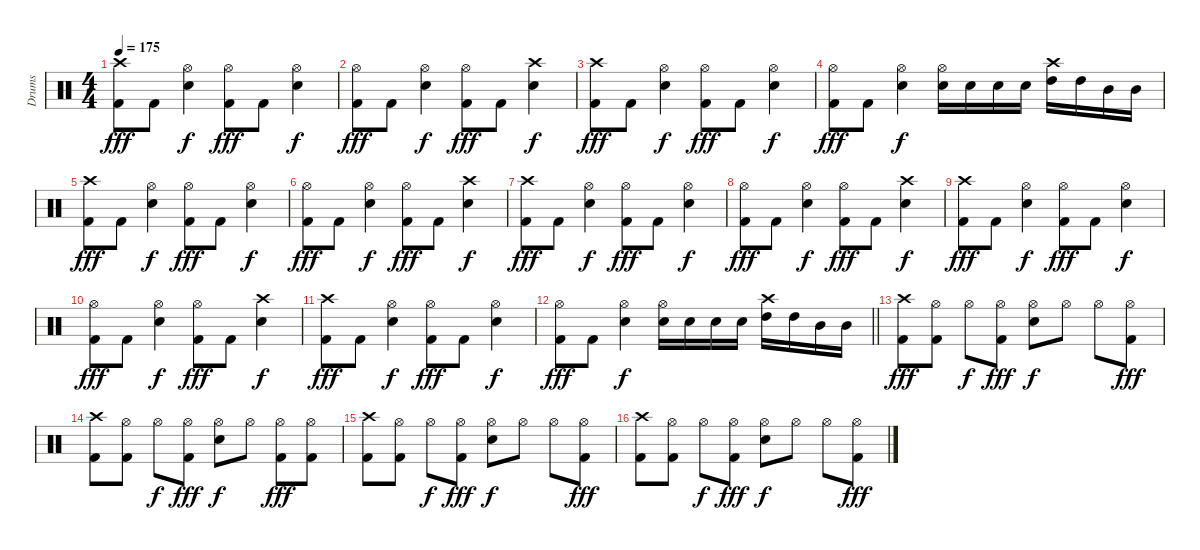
\track ("Drums" "Drums") {instrument percussion}
\staff {score}
\articulation defaults
\ts (4 4)
\tempo 175
\clef neutral
\ks c
("Crash high (hit)" "Kick (hit) 2").8{dy fff} "Kick (hit) 2".8 ("Hi-Hat (open)" "Electric Snare (hit)").4{dy f} ("Hi-Hat (open)" "Kick (hit) 2").8{dy fff} "Kick (hit) 2".8 ("Hi-Hat (open)" "Electric Snare (hit)").4{dy f} |
("Hi-Hat (open)" "Kick (hit) 2").8{dy fff} "Kick (hit) 2".8 ("Hi-Hat (open)" "Electric Snare (hit)").4{dy f} ("Hi-Hat (open)" "Kick (hit) 2").8{dy fff} "Kick (hit) 2".8 ("Crash high (hit)" "Electric Snare (hit)").4{dy f} |
("Crash high (hit)" "Kick (hit) 2").8{dy fff} "Kick (hit) 2".8 ("Hi-Hat (open)" "Electric Snare (hit)").4{dy f} ("Hi-Hat (open)" "Kick (hit) 2").8{dy fff} "Kick (hit) 2".8 ("Hi-Hat (open)" "Electric Snare (hit)").4{dy f} |
("Hi-Hat (open)" "Kick (hit) 2").8{dy fff} "Kick (hit) 2".8 ("Hi-Hat (open)" "Electric Snare (hit)").4{dy f} ("Hi-Hat (open)" "Electric Snare (hit)").16 "Electric Snare (hit)".16 "Electric Snare (hit)".16 "Electric Snare (hit)".16 ("Crash high (hit)" "High Tom (hit)").16 "High Tom (hit)".16 "Mid Tom (hit)".16 "Mid Tom (hit)".16 |
("Crash high (hit)" "Kick (hit) 2").8{dy fff} "Kick (hit) 2".8 ("Hi-Hat (open)" "Electric Snare (hit)").4{dy f} ("Hi-Hat (open)" "Kick (hit) 2").8{dy fff} "Kick (hit) 2".8 ("Hi-Hat (open)" "Electric Snare (hit)").4{dy f} |
("Hi-Hat (open)" "Kick (hit) 2").8{dy fff} "Kick (hit) 2".8 ("Hi-Hat (open)" "Electric Snare (hit)").4{dy f} ("Hi-Hat (open)" "Kick (hit) 2").8{dy fff} "Kick (hit) 2".8 ("Crash high (hit)" "Electric Snare (hit)").4{dy f} |
("Crash high (hit)" "Kick (hit) 2").8{dy fff} "Kick (hit) 2".8 ("Hi-Hat (open)" "Electric Snare (hit)").4{dy f} ("Hi-Hat (open)" "Kick (hit) 2").8{dy fff} "Kick (hit) 2".8 ("Hi-Hat (open)" "Electric Snare (hit)").4{dy f} |
("Hi-Hat (open)" "Kick (hit) 2").8{dy fff} "Kick (hit) 2".8 ("Hi-Hat (open)" "Electric Snare (hit)").4{dy f} ("Hi-Hat (open)" "Kick (hit) 2").8{dy fff} "Kick (hit) 2".8 ("Crash high (hit)" "Electric Snare (hit)").4{dy f} |
("Crash high (hit)" "Kick (hit) 2").8{dy fff} "Kick (hit) 2".8 ("Hi-Hat (open)" "Electric Snare (hit)").4{dy f} ("Hi-Hat (open)" "Kick (hit) 2").8{dy fff} "Kick (hit) 2".8 ("Hi-Hat (open)" "Electric Snare (hit)").4{dy f} |
("Hi-Hat (open)" "Kick (hit) 2").8{dy fff} "Kick (hit) 2".8 ("Hi-Hat (open)" "Electric Snare (hit)").4{dy f} ("Hi-Hat (open)" "Kick (hit) 2").8{dy fff} "Kick (hit) 2".8 ("Crash high (hit)" "Electric Snare (hit)").4{dy f} |
("Crash high (hit)" "Kick (hit) 2").8{dy fff} "Kick (hit) 2".8 ("Hi-Hat (open)" "Electric Snare (hit)").4{dy f} ("Hi-Hat (open)" "Kick (hit) 2").8{dy fff} "Kick (hit) 2".8 ("Hi-Hat (open)" "Electric Snare (hit)").4{dy f} |
\barLineRight lightlight
("Hi-Hat (open)" "Kick (hit) 2").8{dy fff} "Kick (hit) 2".8 ("Hi-Hat (open)" "Electric Snare (hit)").4{dy f} ("Hi-Hat (open)" "Electric Snare (hit)").16 "Electric Snare (hit)".16 "Electric Snare (hit)".16 "Electric Snare (hit)".16 ("Crash high (hit)" "High Tom (hit)").16 "High Tom (hit)".16 "Mid Tom (hit)".16 "Mid Tom (hit)".16 |
("Crash high (hit)" "Kick (hit) 2").8{dy fff} ("Hi-Hat (open)" "Kick (hit) 2").8 "Hi-Hat (open)".8{dy f} ("Hi-Hat (open)" "Kick (hit) 2").8{dy fff} ("Hi-Hat (open)" "Electric Snare (hit)").8{dy f} "Hi-Hat (open)".8 "Hi-Hat (open)".8 ("Hi-Hat (open)" "Kick (hit) 2").8{dy fff} |
("Crash high (hit)" "Kick (hit) 2").8 ("Hi-Hat (open)" "Kick (hit) 2").8 "Hi-Hat (open)".8{dy f} ("Hi-Hat (open)" "Kick (hit) 2").8{dy fff} ("Hi-Hat (open)" "Electric Snare (hit)").8{dy f} "Hi-Hat (open)".8 ("Hi-Hat (open)" "Kick (hit) 2").8{dy fff} ("Hi-Hat (open)" "Kick (hit) 2").8 |
("Crash high (hit)" "Kick (hit) 2").8 ("Hi-Hat (open)" "Kick (hit) 2").8 "Hi-Hat (open)".8{dy f} ("Hi-Hat (open)" "Kick (hit) 2").8{dy fff} ("Hi-Hat (open)" "Electric Snare (hit)").8{dy f} "Hi-Hat (open)".8 "Hi-Hat (open)".8 ("Hi-Hat (open)" "Kick (hit) 2").8{dy fff} |
("Crash high (hit)" "Kick (hit) 2").8 ("Hi-Hat (open)" "Kick (hit) 2").8 "Hi-Hat (open)".8{dy f} ("Hi-Hat (open)" "Kick (hit) 2").8{dy fff} ("Hi-Hat (open)" "Electric Snare (hit)").8{dy f} "Hi-Hat (open)".8 "Hi-Hat (open)".8 ("Hi-Hat (open)" "Kick (hit) 2").8{dy fff}
